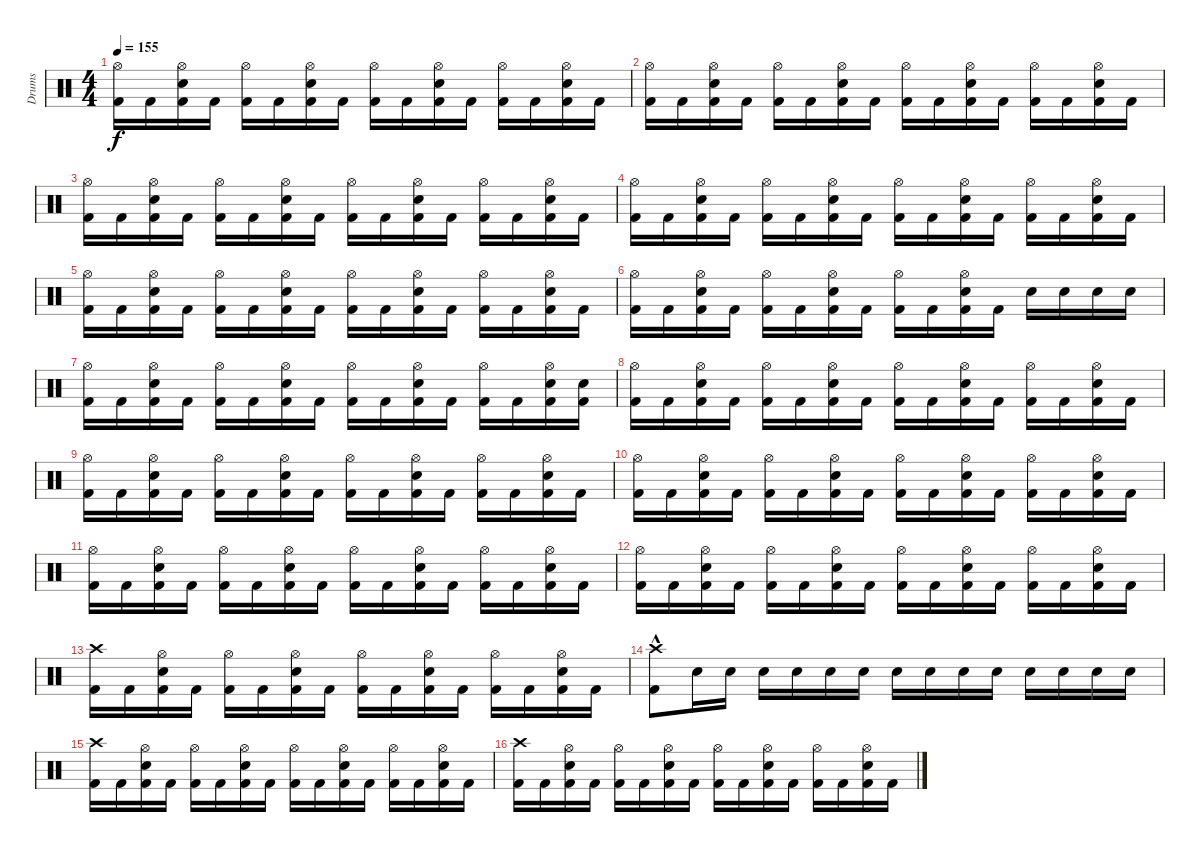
\track ("Drums" "Drums") {instrument percussion}
\staff {score}
\articulation defaults
\ts (4 4)
\tempo 155
\clef neutral
\ks c
("Kick (hit) 2" "Hi-Hat (open)").16{dy f} "Kick (hit) 2".16 ("Kick (hit) 2" "Snare (hit) 2" "Hi-Hat (open)").16 "Kick (hit) 2".16 ("Kick (hit) 2" "Hi-Hat (open)").16 "Kick (hit) 2".16 ("Kick (hit) 2" "Snare (hit) 2" "Hi-Hat (open)").16 "Kick (hit) 2".16 ("Kick (hit) 2" "Hi-Hat (open)").16 "Kick (hit) 2".16 ("Kick (hit) 2" "Snare (hit) 2" "Hi-Hat (open)").16 "Kick (hit) 2".16 ("Kick (hit) 2" "Hi-Hat (open)").16 "Kick (hit) 2".16 ("Kick (hit) 2" "Snare (hit) 2" "Hi-Hat (open)").16 "Kick (hit) 2".16 |
("Kick (hit) 2" "Hi-Hat (open)").16 "Kick (hit) 2".16 ("Kick (hit) 2" "Snare (hit) 2" "Hi-Hat (open)").16 "Kick (hit) 2".16 ("Kick (hit) 2" "Hi-Hat (open)").16 "Kick (hit) 2".16 ("Kick (hit) 2" "Snare (hit) 2" "Hi-Hat (open)").16 "Kick (hit) 2".16 ("Kick (hit) 2" "Hi-Hat (open)").16 "Kick (hit) 2".16 ("Kick (hit) 2" "Snare (hit) 2" "Hi-Hat (open)").16 "Kick (hit) 2".16 ("Kick (hit) 2" "Hi-Hat (open)").16 "Kick (hit) 2".16 ("Kick (hit) 2" "Snare (hit) 2" "Hi-Hat (open)").16 "Kick (hit) 2".16 |
("Kick (hit) 2" "Hi-Hat (open)").16 "Kick (hit) 2".16 ("Kick (hit) 2" "Snare (hit) 2" "Hi-Hat (open)").16 "Kick (hit) 2".16 ("Kick (hit) 2" "Hi-Hat (open)").16 "Kick (hit) 2".16 ("Kick (hit) 2" "Snare (hit) 2" "Hi-Hat (open)").16 "Kick (hit) 2".16 ("Kick (hit) 2" "Hi-Hat (open)").16 "Kick (hit) 2".16 ("Kick (hit) 2" "Snare (hit) 2" "Hi-Hat (open)").16 "Kick (hit) 2".16 ("Kick (hit) 2" "Hi-Hat (open)").16 "Kick (hit) 2".16 ("Kick (hit) 2" "Snare (hit) 2" "Hi-Hat (open)").16 "Kick (hit) 2".16 |
("Kick (hit) 2" "Hi-Hat (open)").16 "Kick (hit) 2".16 ("Kick (hit) 2" "Snare (hit) 2" "Hi-Hat (open)").16 "Kick (hit) 2".16 ("Kick (hit) 2" "Hi-Hat (open)").16 "Kick (hit) 2".16 ("Kick (hit) 2" "Snare (hit) 2" "Hi-Hat (open)").16 "Kick (hit) 2".16 ("Kick (hit) 2" "Hi-Hat (open)").16 "Kick (hit) 2".16 ("Kick (hit) 2" "Snare (hit) 2" "Hi-Hat (open)").16 "Kick (hit) 2".16 ("Kick (hit) 2" "Hi-Hat (open)").16 "Kick (hit) 2".16 ("Kick (hit) 2" "Snare (hit) 2" "Hi-Hat (open)").16 "Kick (hit) 2".16 |
("Kick (hit) 2" "Hi-Hat (open)").16 "Kick (hit) 2".16 ("Kick (hit) 2" "Snare (hit) 2" "Hi-Hat (open)").16 "Kick (hit) 2".16 ("Kick (hit) 2" "Hi-Hat (open)").16 "Kick (hit) 2".16 ("Kick (hit) 2" "Snare (hit) 2" "Hi-Hat (open)").16 "Kick (hit) 2".16 ("Kick (hit) 2" "Hi-Hat (open)").16 "Kick (hit) 2".16 ("Kick (hit) 2" "Snare (hit) 2" "Hi-Hat (open)").16 "Kick (hit) 2".16 ("Kick (hit) 2" "Hi-Hat (open)").16 "Kick (hit) 2".16 ("Kick (hit) 2" "Snare (hit) 2" "Hi-Hat (open)").16 "Kick (hit) 2".16 |
("Kick (hit) 2" "Hi-Hat (open)").16 "Kick (hit) 2".16 ("Kick (hit) 2" "Snare (hit) 2" "Hi-Hat (open)").16 "Kick (hit) 2".16 ("Kick (hit) 2" "Hi-Hat (open)").16 "Kick (hit) 2".16 ("Kick (hit) 2" "Snare (hit) 2" "Hi-Hat (open)").16 "Kick (hit) 2".16 ("Kick (hit) 2" "Hi-Hat (open)").16 "Kick (hit) 2".16 ("Kick (hit) 2" "Snare (hit) 2" "Hi-Hat (open)").16 "Kick (hit) 2".16 "Snare (hit) 2".16 "Snare (hit) 2".16 "Snare (hit) 2".16 "Snare (hit) 2".16 |
("Kick (hit) 2" "Hi-Hat (open)").16 "Kick (hit) 2".16 ("Kick (hit) 2" "Snare (hit) 2" "Hi-Hat (open)").16 "Kick (hit) 2".16 ("Kick (hit) 2" "Hi-Hat (open)").16 "Kick (hit) 2".16 ("Kick (hit) 2" "Snare (hit) 2" "Hi-Hat (open)").16 "Kick (hit) 2".16 ("Kick (hit) 2" "Hi-Hat (open)").16 "Kick (hit) 2".16 ("Kick (hit) 2" "Snare (hit) 2" "Hi-Hat (open)").16 "Kick (hit) 2".16 ("Kick (hit) 2" "Hi-Hat (open)").16 "Kick (hit) 2".16 ("Kick (hit) 2" "Hi-Hat (open)" "Snare (hit) 2").16 ("Kick (hit) 2" "Snare (hit) 2").16 |
("Kick (hit) 2" "Hi-Hat (open)").16 "Kick (hit) 2".16 ("Kick (hit) 2" "Snare (hit) 2" "Hi-Hat (open)").16 "Kick (hit) 2".16 ("Kick (hit) 2" "Hi-Hat (open)").16 "Kick (hit) 2".16 ("Kick (hit) 2" "Snare (hit) 2" "Hi-Hat (open)").16 "Kick (hit) 2".16 ("Kick (hit) 2" "Hi-Hat (open)").16 "Kick (hit) 2".16 ("Kick (hit) 2" "Snare (hit) 2" "Hi-Hat (open)").16 "Kick (hit) 2".16 ("Kick (hit) 2" "Hi-Hat (open)").16 "Kick (hit) 2".16 ("Kick (hit) 2" "Snare (hit) 2" "Hi-Hat (open)").16 "Kick (hit) 2".16 |
("Kick (hit) 2" "Hi-Hat (open)").16 "Kick (hit) 2".16 ("Kick (hit) 2" "Snare (hit) 2" "Hi-Hat (open)").16 "Kick (hit) 2".16 ("Kick (hit) 2" "Hi-Hat (open)").16 "Kick (hit) 2".16 ("Kick (hit) 2" "Snare (hit) 2" "Hi-Hat (open)").16 "Kick (hit) 2".16 ("Kick (hit) 2" "Hi-Hat (open)").16 "Kick (hit) 2".16 ("Kick (hit) 2" "Snare (hit) 2" "Hi-Hat (open)").16 "Kick (hit) 2".16 ("Kick (hit) 2" "Hi-Hat (open)").16 "Kick (hit) 2".16 ("Kick (hit) 2" "Snare (hit) 2" "Hi-Hat (open)").16 "Kick (hit) 2".16 |
("Kick (hit) 2" "Hi-Hat (open)").16 "Kick (hit) 2".16 ("Kick (hit) 2" "Snare (hit) 2" "Hi-Hat (open)").16 "Kick (hit) 2".16 ("Kick (hit) 2" "Hi-Hat (open)").16 "Kick (hit) 2".16 ("Kick (hit) 2" "Snare (hit) 2" "Hi-Hat (open)").16 "Kick (hit) 2".16 ("Kick (hit) 2" "Hi-Hat (open)").16 "Kick (hit) 2".16 ("Kick (hit) 2" "Snare (hit) 2" "Hi-Hat (open)").16 "Kick (hit) 2".16 ("Kick (hit) 2" "Hi-Hat (open)").16 "Kick (hit) 2".16 ("Kick (hit) 2" "Snare (hit) 2" "Hi-Hat (open)").16 "Kick (hit) 2".16 |
("Kick (hit) 2" "Hi-Hat (open)").16 "Kick (hit) 2".16 ("Kick (hit) 2" "Snare (hit) 2" "Hi-Hat (open)").16 "Kick (hit) 2".16 ("Kick (hit) 2" "Hi-Hat (open)").16 "Kick (hit) 2".16 ("Kick (hit) 2" "Snare (hit) 2" "Hi-Hat (open)").16 "Kick (hit) 2".16 ("Kick (hit) 2" "Hi-Hat (open)").16 "Kick (hit) 2".16 ("Kick (hit) 2" "Snare (hit) 2" "Hi-Hat (open)").16 "Kick (hit) 2".16 ("Kick (hit) 2" "Hi-Hat (open)").16 "Kick (hit) 2".16 ("Kick (hit) 2" "Snare (hit) 2" "Hi-Hat (open)").16 "Kick (hit) 2".16 |
("Kick (hit) 2" "Hi-Hat (open)").16 "Kick (hit) 2".16 ("Kick (hit) 2" "Snare (hit) 2" "Hi-Hat (open)").16 "Kick (hit) 2".16 ("Kick (hit) 2" "Hi-Hat (open)").16 "Kick (hit) 2".16 ("Kick (hit) 2" "Snare (hit) 2" "Hi-Hat (open)").16 "Kick (hit) 2".16 ("Kick (hit) 2" "Hi-Hat (open)").16 "Kick (hit) 2".16 ("Kick (hit) 2" "Snare (hit) 2" "Hi-Hat (open)").16 "Kick (hit) 2".16 ("Kick (hit) 2" "Hi-Hat (open)").16 "Kick (hit) 2".16 ("Kick (hit) 2" "Snare (hit) 2" "Hi-Hat (open)").16 "Kick (hit) 2".16 |
("Kick (hit) 2" "Crash high (hit)").16 "Kick (hit) 2".16 ("Kick (hit) 2" "Snare (hit) 2" "Hi-Hat (open)").16 "Kick (hit) 2".16 ("Kick (hit) 2" "Hi-Hat (open)").16 "Kick (hit) 2".16 ("Kick (hit) 2" "Snare (hit) 2" "Hi-Hat (open)").16 "Kick (hit) 2".16 ("Kick (hit) 2" "Hi-Hat (open)").16 "Kick (hit) 2".16 ("Kick (hit) 2" "Snare (hit) 2" "Hi-Hat (open)").16 "Kick (hit) 2".16 ("Kick (hit) 2" "Hi-Hat (open)").16 "Kick (hit) 2".16 ("Kick (hit) 2" "Snare (hit) 2" "Hi-Hat (open)").16 "Kick (hit) 2".16 |
("Kick (hit) 2"{hac} "Crash high (hit)").8 "Snare (hit) 2".16 "Snare (hit) 2".16 "Snare (hit) 2".16 "Snare (hit) 2".16 "Snare (hit) 2".16 "Snare (hit) 2".16 "Snare (hit) 2".16 "Snare (hit) 2".16 "Snare (hit) 2".16 "Snare (hit) 2".16 "Snare (hit) 2".16 "Snare (hit) 2".16 "Snare (hit) 2".16 "Snare (hit) 2".16 |
("Kick (hit) 2" "Crash high (hit)").16 "Kick (hit) 2".16 ("Kick (hit) 2" "Snare (hit) 2" "Hi-Hat (open)").16 "Kick (hit) 2".16 ("Kick (hit) 2" "Hi-Hat (open)").16 "Kick (hit) 2".16 ("Kick (hit) 2" "Snare (hit) 2" "Hi-Hat (open)").16 "Kick (hit) 2".16 ("Kick (hit) 2" "Hi-Hat (open)").16 "Kick (hit) 2".16 ("Kick (hit) 2" "Snare (hit) 2" "Hi-Hat (open)").16 "Kick (hit) 2".16 ("Kick (hit) 2" "Hi-Hat (open)").16 "Kick (hit) 2".16 ("Kick (hit) 2" "Snare (hit) 2" "Hi-Hat (open)").16 "Kick (hit) 2".16 |
("Kick (hit) 2" "Crash high (hit)").16 "Kick (hit) 2".16 ("Kick (hit) 2" "Snare (hit) 2" "Hi-Hat (open)").16 "Kick (hit) 2".16 ("Kick (hit) 2" "Hi-Hat (open)").16 "Kick (hit) 2".16 ("Kick (hit) 2" "Snare (hit) 2" "Hi-Hat (open)").16 "Kick (hit) 2".16 ("Kick (hit) 2" "Hi-Hat (open)").16 "Kick (hit) 2".16 ("Kick (hit) 2" "Snare (hit) 2" "Hi-Hat (open)").16 "Kick (hit) 2".16 ("Kick (hit) 2" "Hi-Hat (open)").16 "Kick (hit) 2".16 ("Kick (hit) 2" "Snare (hit) 2" "Hi-Hat (open)").16 "Kick (hit) 2".16
